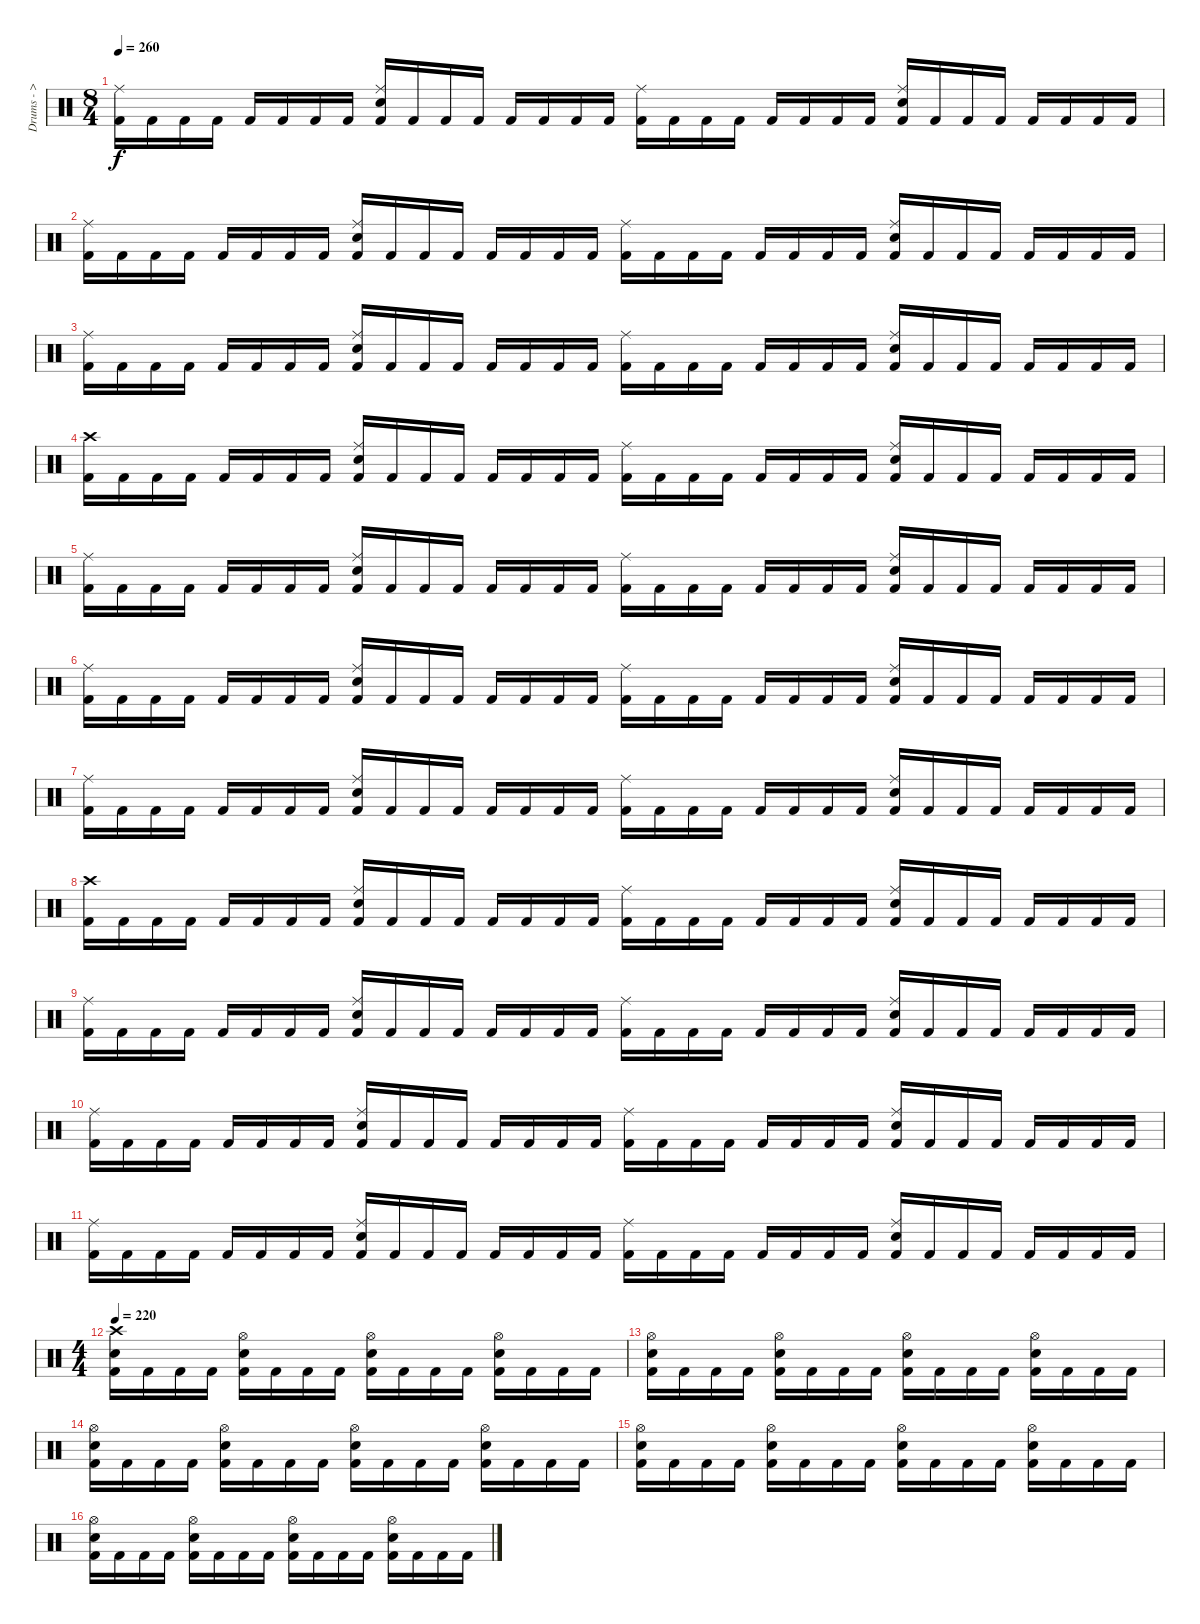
\track ("Drums - > Nicholas" "Drums - > ") {instrument percussion}
\staff {score}
\articulation defaults
\ts (8 4)
\tempo 260
\clef neutral
\ks c
("Kick (hit) 2" "Ride (middle)").16{dy f} "Kick (hit) 2".16 "Kick (hit) 2".16 "Kick (hit) 2".16 "Kick (hit) 2".16 "Kick (hit) 2".16 "Kick (hit) 2".16 "Kick (hit) 2".16 ("Kick (hit) 2" "Snare (hit) 2" "Ride (middle)").16 "Kick (hit) 2".16 "Kick (hit) 2".16 "Kick (hit) 2".16 "Kick (hit) 2".16 "Kick (hit) 2".16 "Kick (hit) 2".16 "Kick (hit) 2".16 ("Kick (hit) 2" "Ride (middle)").16 "Kick (hit) 2".16 "Kick (hit) 2".16 "Kick (hit) 2".16 "Kick (hit) 2".16 "Kick (hit) 2".16 "Kick (hit) 2".16 "Kick (hit) 2".16 ("Kick (hit) 2" "Snare (hit) 2" "Ride (middle)").16 "Kick (hit) 2".16 "Kick (hit) 2".16 "Kick (hit) 2".16 "Kick (hit) 2".16 "Kick (hit) 2".16 "Kick (hit) 2".16 "Kick (hit) 2".16 |
("Kick (hit) 2" "Ride (middle)").16 "Kick (hit) 2".16 "Kick (hit) 2".16 "Kick (hit) 2".16 "Kick (hit) 2".16 "Kick (hit) 2".16 "Kick (hit) 2".16 "Kick (hit) 2".16 ("Kick (hit) 2" "Snare (hit) 2" "Ride (middle)").16 "Kick (hit) 2".16 "Kick (hit) 2".16 "Kick (hit) 2".16 "Kick (hit) 2".16 "Kick (hit) 2".16 "Kick (hit) 2".16 "Kick (hit) 2".16 ("Kick (hit) 2" "Ride (middle)").16 "Kick (hit) 2".16 "Kick (hit) 2".16 "Kick (hit) 2".16 "Kick (hit) 2".16 "Kick (hit) 2".16 "Kick (hit) 2".16 "Kick (hit) 2".16 ("Kick (hit) 2" "Snare (hit) 2" "Ride (middle)").16 "Kick (hit) 2".16 "Kick (hit) 2".16 "Kick (hit) 2".16 "Kick (hit) 2".16 "Kick (hit) 2".16 "Kick (hit) 2".16 "Kick (hit) 2".16 |
("Kick (hit) 2" "Ride (middle)").16 "Kick (hit) 2".16 "Kick (hit) 2".16 "Kick (hit) 2".16 "Kick (hit) 2".16 "Kick (hit) 2".16 "Kick (hit) 2".16 "Kick (hit) 2".16 ("Kick (hit) 2" "Snare (hit) 2" "Ride (middle)").16 "Kick (hit) 2".16 "Kick (hit) 2".16 "Kick (hit) 2".16 "Kick (hit) 2".16 "Kick (hit) 2".16 "Kick (hit) 2".16 "Kick (hit) 2".16 ("Kick (hit) 2" "Ride (middle)").16 "Kick (hit) 2".16 "Kick (hit) 2".16 "Kick (hit) 2".16 "Kick (hit) 2".16 "Kick (hit) 2".16 "Kick (hit) 2".16 "Kick (hit) 2".16 ("Kick (hit) 2" "Snare (hit) 2" "Ride (middle)").16 "Kick (hit) 2".16 "Kick (hit) 2".16 "Kick (hit) 2".16 "Kick (hit) 2".16 "Kick (hit) 2".16 "Kick (hit) 2".16 "Kick (hit) 2".16 |
("Kick (hit) 2" "Crash high (hit)").16 "Kick (hit) 2".16 "Kick (hit) 2".16 "Kick (hit) 2".16 "Kick (hit) 2".16 "Kick (hit) 2".16 "Kick (hit) 2".16 "Kick (hit) 2".16 ("Kick (hit) 2" "Snare (hit) 2" "Ride (middle)").16 "Kick (hit) 2".16 "Kick (hit) 2".16 "Kick (hit) 2".16 "Kick (hit) 2".16 "Kick (hit) 2".16 "Kick (hit) 2".16 "Kick (hit) 2".16 ("Kick (hit) 2" "Ride (middle)").16 "Kick (hit) 2".16 "Kick (hit) 2".16 "Kick (hit) 2".16 "Kick (hit) 2".16 "Kick (hit) 2".16 "Kick (hit) 2".16 "Kick (hit) 2".16 ("Kick (hit) 2" "Snare (hit) 2" "Ride (middle)").16 "Kick (hit) 2".16 "Kick (hit) 2".16 "Kick (hit) 2".16 "Kick (hit) 2".16 "Kick (hit) 2".16 "Kick (hit) 2".16 "Kick (hit) 2".16 |
("Kick (hit) 2" "Ride (middle)").16 "Kick (hit) 2".16 "Kick (hit) 2".16 "Kick (hit) 2".16 "Kick (hit) 2".16 "Kick (hit) 2".16 "Kick (hit) 2".16 "Kick (hit) 2".16 ("Kick (hit) 2" "Snare (hit) 2" "Ride (middle)").16 "Kick (hit) 2".16 "Kick (hit) 2".16 "Kick (hit) 2".16 "Kick (hit) 2".16 "Kick (hit) 2".16 "Kick (hit) 2".16 "Kick (hit) 2".16 ("Kick (hit) 2" "Ride (middle)").16 "Kick (hit) 2".16 "Kick (hit) 2".16 "Kick (hit) 2".16 "Kick (hit) 2".16 "Kick (hit) 2".16 "Kick (hit) 2".16 "Kick (hit) 2".16 ("Kick (hit) 2" "Snare (hit) 2" "Ride (middle)").16 "Kick (hit) 2".16 "Kick (hit) 2".16 "Kick (hit) 2".16 "Kick (hit) 2".16 "Kick (hit) 2".16 "Kick (hit) 2".16 "Kick (hit) 2".16 |
("Kick (hit) 2" "Ride (middle)").16 "Kick (hit) 2".16 "Kick (hit) 2".16 "Kick (hit) 2".16 "Kick (hit) 2".16 "Kick (hit) 2".16 "Kick (hit) 2".16 "Kick (hit) 2".16 ("Kick (hit) 2" "Snare (hit) 2" "Ride (middle)").16 "Kick (hit) 2".16 "Kick (hit) 2".16 "Kick (hit) 2".16 "Kick (hit) 2".16 "Kick (hit) 2".16 "Kick (hit) 2".16 "Kick (hit) 2".16 ("Kick (hit) 2" "Ride (middle)").16 "Kick (hit) 2".16 "Kick (hit) 2".16 "Kick (hit) 2".16 "Kick (hit) 2".16 "Kick (hit) 2".16 "Kick (hit) 2".16 "Kick (hit) 2".16 ("Kick (hit) 2" "Snare (hit) 2" "Ride (middle)").16 "Kick (hit) 2".16 "Kick (hit) 2".16 "Kick (hit) 2".16 "Kick (hit) 2".16 "Kick (hit) 2".16 "Kick (hit) 2".16 "Kick (hit) 2".16 |
("Kick (hit) 2" "Ride (middle)").16 "Kick (hit) 2".16 "Kick (hit) 2".16 "Kick (hit) 2".16 "Kick (hit) 2".16 "Kick (hit) 2".16 "Kick (hit) 2".16 "Kick (hit) 2".16 ("Kick (hit) 2" "Snare (hit) 2" "Ride (middle)").16 "Kick (hit) 2".16 "Kick (hit) 2".16 "Kick (hit) 2".16 "Kick (hit) 2".16 "Kick (hit) 2".16 "Kick (hit) 2".16 "Kick (hit) 2".16 ("Kick (hit) 2" "Ride (middle)").16 "Kick (hit) 2".16 "Kick (hit) 2".16 "Kick (hit) 2".16 "Kick (hit) 2".16 "Kick (hit) 2".16 "Kick (hit) 2".16 "Kick (hit) 2".16 ("Kick (hit) 2" "Snare (hit) 2" "Ride (middle)").16 "Kick (hit) 2".16 "Kick (hit) 2".16 "Kick (hit) 2".16 "Kick (hit) 2".16 "Kick (hit) 2".16 "Kick (hit) 2".16 "Kick (hit) 2".16 |
("Kick (hit) 2" "Crash high (hit)").16 "Kick (hit) 2".16 "Kick (hit) 2".16 "Kick (hit) 2".16 "Kick (hit) 2".16 "Kick (hit) 2".16 "Kick (hit) 2".16 "Kick (hit) 2".16 ("Kick (hit) 2" "Snare (hit) 2" "Ride (middle)").16 "Kick (hit) 2".16 "Kick (hit) 2".16 "Kick (hit) 2".16 "Kick (hit) 2".16 "Kick (hit) 2".16 "Kick (hit) 2".16 "Kick (hit) 2".16 ("Kick (hit) 2" "Ride (middle)").16 "Kick (hit) 2".16 "Kick (hit) 2".16 "Kick (hit) 2".16 "Kick (hit) 2".16 "Kick (hit) 2".16 "Kick (hit) 2".16 "Kick (hit) 2".16 ("Kick (hit) 2" "Snare (hit) 2" "Ride (middle)").16 "Kick (hit) 2".16 "Kick (hit) 2".16 "Kick (hit) 2".16 "Kick (hit) 2".16 "Kick (hit) 2".16 "Kick (hit) 2".16 "Kick (hit) 2".16 |
("Kick (hit) 2" "Ride (middle)").16 "Kick (hit) 2".16 "Kick (hit) 2".16 "Kick (hit) 2".16 "Kick (hit) 2".16 "Kick (hit) 2".16 "Kick (hit) 2".16 "Kick (hit) 2".16 ("Kick (hit) 2" "Snare (hit) 2" "Ride (middle)").16 "Kick (hit) 2".16 "Kick (hit) 2".16 "Kick (hit) 2".16 "Kick (hit) 2".16 "Kick (hit) 2".16 "Kick (hit) 2".16 "Kick (hit) 2".16 ("Kick (hit) 2" "Ride (middle)").16 "Kick (hit) 2".16 "Kick (hit) 2".16 "Kick (hit) 2".16 "Kick (hit) 2".16 "Kick (hit) 2".16 "Kick (hit) 2".16 "Kick (hit) 2".16 ("Kick (hit) 2" "Snare (hit) 2" "Ride (middle)").16 "Kick (hit) 2".16 "Kick (hit) 2".16 "Kick (hit) 2".16 "Kick (hit) 2".16 "Kick (hit) 2".16 "Kick (hit) 2".16 "Kick (hit) 2".16 |
("Kick (hit) 2" "Ride (middle)").16 "Kick (hit) 2".16 "Kick (hit) 2".16 "Kick (hit) 2".16 "Kick (hit) 2".16 "Kick (hit) 2".16 "Kick (hit) 2".16 "Kick (hit) 2".16 ("Kick (hit) 2" "Snare (hit) 2" "Ride (middle)").16 "Kick (hit) 2".16 "Kick (hit) 2".16 "Kick (hit) 2".16 "Kick (hit) 2".16 "Kick (hit) 2".16 "Kick (hit) 2".16 "Kick (hit) 2".16 ("Kick (hit) 2" "Ride (middle)").16 "Kick (hit) 2".16 "Kick (hit) 2".16 "Kick (hit) 2".16 "Kick (hit) 2".16 "Kick (hit) 2".16 "Kick (hit) 2".16 "Kick (hit) 2".16 ("Kick (hit) 2" "Snare (hit) 2" "Ride (middle)").16 "Kick (hit) 2".16 "Kick (hit) 2".16 "Kick (hit) 2".16 "Kick (hit) 2".16 "Kick (hit) 2".16 "Kick (hit) 2".16 "Kick (hit) 2".16 |
("Kick (hit) 2" "Ride (middle)").16 "Kick (hit) 2".16 "Kick (hit) 2".16 "Kick (hit) 2".16 "Kick (hit) 2".16 "Kick (hit) 2".16 "Kick (hit) 2".16 "Kick (hit) 2".16 ("Kick (hit) 2" "Snare (hit) 2" "Ride (middle)").16 "Kick (hit) 2".16 "Kick (hit) 2".16 "Kick (hit) 2".16 "Kick (hit) 2".16 "Kick (hit) 2".16 "Kick (hit) 2".16 "Kick (hit) 2".16 ("Kick (hit) 2" "Ride (middle)").16 "Kick (hit) 2".16 "Kick (hit) 2".16 "Kick (hit) 2".16 "Kick (hit) 2".16 "Kick (hit) 2".16 "Kick (hit) 2".16 "Kick (hit) 2".16 ("Kick (hit) 2" "Snare (hit) 2" "Ride (middle)").16 "Kick (hit) 2".16 "Kick (hit) 2".16 "Kick (hit) 2".16 "Kick (hit) 2".16 "Kick (hit) 2".16 "Kick (hit) 2".16 "Kick (hit) 2".16 |
\ts (4 4)
\tempo 220
("Kick (hit) 2" "Snare (hit) 2" "Crash high (hit)").16 "Kick (hit) 2".16 "Kick (hit) 2".16 "Kick (hit) 2".16 ("Kick (hit) 2" "Snare (hit) 2" "Hi-Hat (open)").16 "Kick (hit) 2".16 "Kick (hit) 2".16 "Kick (hit) 2".16 ("Kick (hit) 2" "Snare (hit) 2" "Hi-Hat (open)").16 "Kick (hit) 2".16 "Kick (hit) 2".16 "Kick (hit) 2".16 ("Kick (hit) 2" "Snare (hit) 2" "Hi-Hat (open)").16 "Kick (hit) 2".16 "Kick (hit) 2".16 "Kick (hit) 2".16 |
("Kick (hit) 2" "Snare (hit) 2" "Hi-Hat (open)").16 "Kick (hit) 2".16 "Kick (hit) 2".16 "Kick (hit) 2".16 ("Kick (hit) 2" "Snare (hit) 2" "Hi-Hat (open)").16 "Kick (hit) 2".16 "Kick (hit) 2".16 "Kick (hit) 2".16 ("Kick (hit) 2" "Snare (hit) 2" "Hi-Hat (open)").16 "Kick (hit) 2".16 "Kick (hit) 2".16 "Kick (hit) 2".16 ("Kick (hit) 2" "Snare (hit) 2" "Hi-Hat (open)").16 "Kick (hit) 2".16 "Kick (hit) 2".16 "Kick (hit) 2".16 |
("Kick (hit) 2" "Snare (hit) 2" "Hi-Hat (open)").16 "Kick (hit) 2".16 "Kick (hit) 2".16 "Kick (hit) 2".16 ("Kick (hit) 2" "Snare (hit) 2" "Hi-Hat (open)").16 "Kick (hit) 2".16 "Kick (hit) 2".16 "Kick (hit) 2".16 ("Kick (hit) 2" "Snare (hit) 2" "Hi-Hat (open)").16 "Kick (hit) 2".16 "Kick (hit) 2".16 "Kick (hit) 2".16 ("Kick (hit) 2" "Snare (hit) 2" "Hi-Hat (open)").16 "Kick (hit) 2".16 "Kick (hit) 2".16 "Kick (hit) 2".16 |
("Kick (hit) 2" "Snare (hit) 2" "Hi-Hat (open)").16 "Kick (hit) 2".16 "Kick (hit) 2".16 "Kick (hit) 2".16 ("Kick (hit) 2" "Snare (hit) 2" "Hi-Hat (open)").16 "Kick (hit) 2".16 "Kick (hit) 2".16 "Kick (hit) 2".16 ("Kick (hit) 2" "Snare (hit) 2" "Hi-Hat (open)").16 "Kick (hit) 2".16 "Kick (hit) 2".16 "Kick (hit) 2".16 ("Kick (hit) 2" "Snare (hit) 2" "Hi-Hat (open)").16 "Kick (hit) 2".16 "Kick (hit) 2".16 "Kick (hit) 2".16 |
("Kick (hit) 2" "Snare (hit) 2" "Hi-Hat (open)").16 "Kick (hit) 2".16 "Kick (hit) 2".16 "Kick (hit) 2".16 ("Kick (hit) 2" "Snare (hit) 2" "Hi-Hat (open)").16 "Kick (hit) 2".16 "Kick (hit) 2".16 "Kick (hit) 2".16 ("Kick (hit) 2" "Snare (hit) 2" "Hi-Hat (open)").16 "Kick (hit) 2".16 "Kick (hit) 2".16 "Kick (hit) 2".16 ("Kick (hit) 2" "Snare (hit) 2" "Hi-Hat (open)").16 "Kick (hit) 2".16 "Kick (hit) 2".16 "Kick (hit) 2".16
